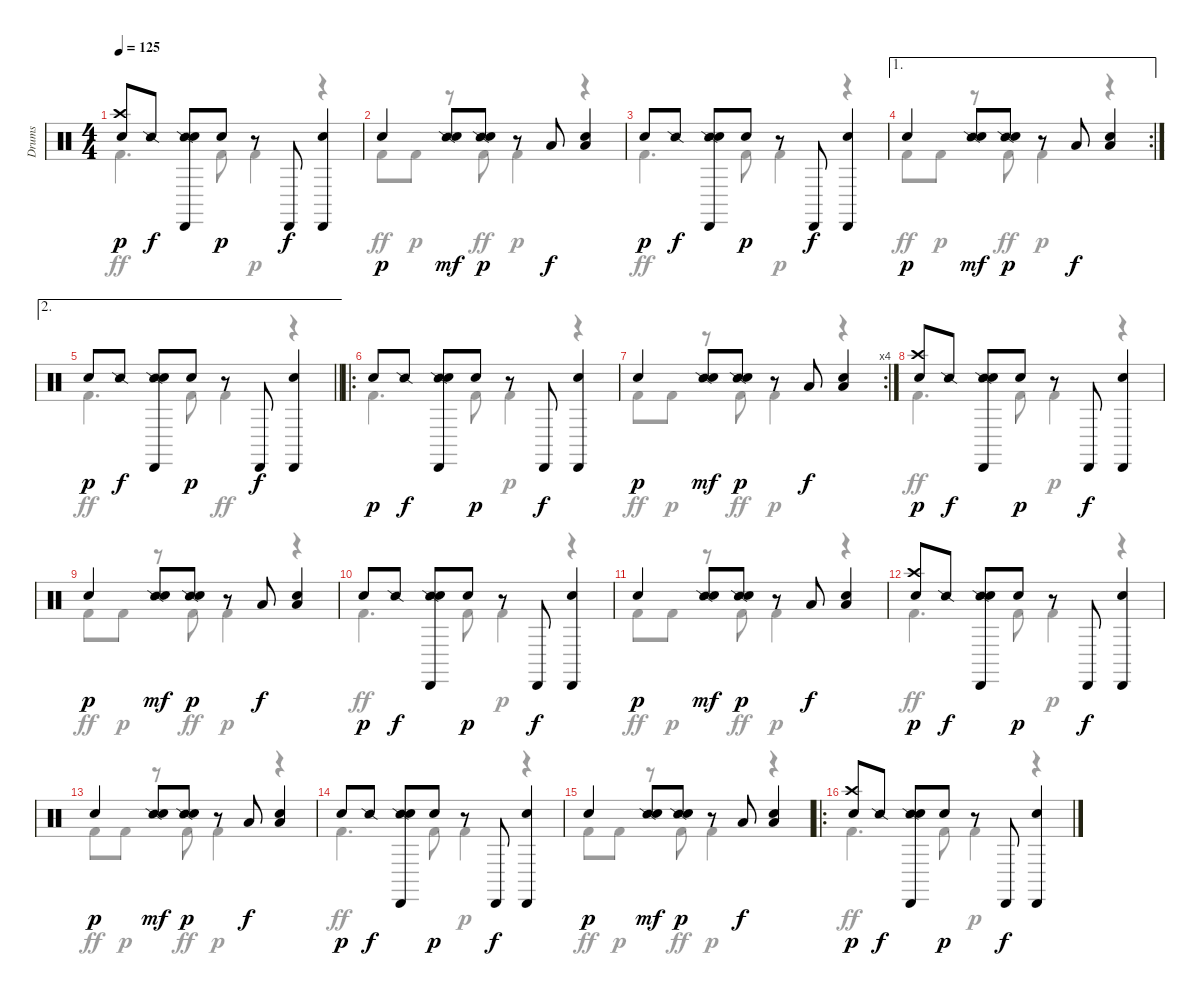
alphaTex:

\track ("Drums" "Drums") {instrument percussion}
\staff {score}
\articulation defaults
\voice
\ts (4 4)
\tempo 125
\clef neutral
\ks c
("Crash high (hit)" "Hand Clap (hit)").8{dy p} "Snare (side stick) 2".8{dy f} ("Snare (side stick) 2" "Cabasa (hit)" "Snare (hit) 2").8 "Hand Clap (hit)".8{dy p} r.8 "Cabasa (hit)".8{dy f} ("Cabasa (hit)" "Snare (hit) 2").4 |
"Hand Clap (hit)".4{dy p} ("Snare (side stick) 2" "Snare (hit) 2").8{dy mf} ("Snare (side stick) 2" "Hand Clap (hit)").8{dy p} r.8 "Low Tom (hit)".8{dy f} ("Low Tom (hit)" "Snare (hit) 2").4 |
"Hand Clap (hit)".8{dy p} "Snare (side stick) 2".8{dy f} ("Snare (side stick) 2" "Cabasa (hit)" "Snare (hit) 2").8 "Hand Clap (hit)".8{dy p} r.8 "Cabasa (hit)".8{dy f} ("Cabasa (hit)" "Snare (hit) 2").4 |
\ae 1
\rc 2 "Hand Clap (hit)".4{dy p}
("Snare (side stick) 2" "Snare (hit) 2").8{dy mf} ("Snare (side stick) 2" "Hand Clap (hit)").8{dy p} r.8 "Low Tom (hit)".8{dy f} ("Low Tom (hit)" "Snare (hit) 2").4 |
\ae 2
\barLineRight lightlight "Hand Clap (hit)".8{dy p} "Snare (side stick) 2".8{dy f}
("Snare (side stick) 2" "Cabasa (hit)" "Snare (hit) 2").8 "Hand Clap (hit)".8{dy p} r.8 "Cabasa (hit)".8{dy f} ("Cabasa (hit)" "Snare (hit) 2").4 |
\ro "Hand Clap (hit)".8{dy p} "Snare (side stick) 2".8{dy f}
("Snare (side stick) 2" "Cabasa (hit)" "Snare (hit) 2").8 "Hand Clap (hit)".8{dy p} r.8 "Cabasa (hit)".8{dy f} ("Cabasa (hit)" "Snare (hit) 2").4 |
\rc 4 "Hand Clap (hit)".4{dy p}
("Snare (side stick) 2" "Snare (hit) 2").8{dy mf} ("Snare (side stick) 2" "Hand Clap (hit)").8{dy p} r.8 "Low Tom (hit)".8{dy f} ("Low Tom (hit)" "Snare (hit) 2").4 |
("Crash high (hit)" "Hand Clap (hit)").8{dy p} "Snare (side stick) 2".8{dy f} ("Snare (side stick) 2" "Cabasa (hit)" "Snare (hit) 2").8 "Hand Clap (hit)".8{dy p} r.8 "Cabasa (hit)".8{dy f} ("Cabasa (hit)" "Snare (hit) 2").4 |
"Hand Clap (hit)".4{dy p} ("Snare (side stick) 2" "Snare (hit) 2").8{dy mf} ("Snare (side stick) 2" "Hand Clap (hit)").8{dy p} r.8 "Low Tom (hit)".8{dy f} ("Low Tom (hit)" "Snare (hit) 2").4 |
"Hand Clap (hit)".8{dy p} "Snare (side stick) 2".8{dy f} ("Snare (side stick) 2" "Cabasa (hit)" "Snare (hit) 2").8 "Hand Clap (hit)".8{dy p} r.8 "Cabasa (hit)".8{dy f} ("Cabasa (hit)" "Snare (hit) 2").4 |
"Hand Clap (hit)".4{dy p} ("Snare (side stick) 2" "Snare (hit) 2").8{dy mf} ("Snare (side stick) 2" "Hand Clap (hit)").8{dy p} r.8 "Low Tom (hit)".8{dy f} ("Low Tom (hit)" "Snare (hit) 2").4 |
("Crash high (hit)" "Hand Clap (hit)").8{dy p} "Snare (side stick) 2".8{dy f} ("Snare (side stick) 2" "Cabasa (hit)" "Snare (hit) 2").8 "Hand Clap (hit)".8{dy p} r.8 "Cabasa (hit)".8{dy f} ("Cabasa (hit)" "Snare (hit) 2").4 |
"Hand Clap (hit)".4{dy p} ("Snare (side stick) 2" "Snare (hit) 2").8{dy mf} ("Snare (side stick) 2" "Hand Clap (hit)").8{dy p} r.8 "Low Tom (hit)".8{dy f} ("Low Tom (hit)" "Snare (hit) 2").4 |
"Hand Clap (hit)".8{dy p} "Snare (side stick) 2".8{dy f} ("Snare (side stick) 2" "Cabasa (hit)" "Snare (hit) 2").8 "Hand Clap (hit)".8{dy p} r.8 "Cabasa (hit)".8{dy f} ("Cabasa (hit)" "Snare (hit) 2").4 |
"Hand Clap (hit)".4{dy p} ("Snare (side stick) 2" "Snare (hit) 2").8{dy mf} ("Snare (side stick) 2" "Hand Clap (hit)").8{dy p} r.8 "Low Tom (hit)".8{dy f} ("Low Tom (hit)" "Snare (hit) 2").4 |
\ro
("Crash high (hit)" "Hand Clap (hit)").8{dy p} "Snare (side stick) 2".8{dy f} ("Snare (side stick) 2" "Cabasa (hit)" "Snare (hit) 2").8 "Hand Clap (hit)".8{dy p} r.8 "Cabasa (hit)".8{dy f} ("Cabasa (hit)" "Snare (hit) 2").4
\voice
\clef neutral
\ottava regular
\simile none
\ks c "Kick (hit) 2".4{d dy ff} "Kick (hit) 2".8 "Kick (hit) 2".4{dy p}
r.4 |
"Kick (hit) 2".8{dy ff} "Kick (hit) 2".8{dy p} r.8 "Kick (hit) 2".8{dy ff} "Kick (hit) 2".4{dy p} r.4 |
"Kick (hit) 2".4{d dy ff} "Kick (hit) 2".8 "Kick (hit) 2".4{dy p} r.4 |
"Kick (hit) 2".8{dy ff} "Kick (hit) 2".8{dy p} r.8 "Kick (hit) 2".8{dy ff} "Kick (hit) 2".4{dy p} r.4 |
\barLineRight lightlight "Kick (hit) 2".4{d dy ff} "Kick (hit) 2".8{dy p} "Kick (hit) 2".4{dy ff}
r.4 |
"Kick (hit) 2".4{d} "Kick (hit) 2".8 "Kick (hit) 2".4{dy p} r.4 |
"Kick (hit) 2".8{dy ff} "Kick (hit) 2".8{dy p} r.8 "Kick (hit) 2".8{dy ff} "Kick (hit) 2".4{dy p} r.4 |
"Kick (hit) 2".4{d dy ff} "Kick (hit) 2".8 "Kick (hit) 2".4{dy p} r.4 |
"Kick (hit) 2".8{dy ff} "Kick (hit) 2".8{dy p} r.8 "Kick (hit) 2".8{dy ff} "Kick (hit) 2".4{dy p} r.4 |
"Kick (hit) 2".4{d dy ff} "Kick (hit) 2".8 "Kick (hit) 2".4{dy p} r.4 |
"Kick (hit) 2".8{dy ff} "Kick (hit) 2".8{dy p} r.8 "Kick (hit) 2".8{dy ff} "Kick (hit) 2".4{dy p} r.4 |
"Kick (hit) 2".4{d dy ff} "Kick (hit) 2".8 "Kick (hit) 2".4{dy p} r.4 |
"Kick (hit) 2".8{dy ff} "Kick (hit) 2".8{dy p} r.8 "Kick (hit) 2".8{dy ff} "Kick (hit) 2".4{dy p} r.4 |
"Kick (hit) 2".4{d dy ff} "Kick (hit) 2".8 "Kick (hit) 2".4{dy p} r.4 |
"Kick (hit) 2".8{dy ff} "Kick (hit) 2".8{dy p} r.8 "Kick (hit) 2".8{dy ff} "Kick (hit) 2".4{dy p} r.4 |
"Kick (hit) 2".4{d dy ff} "Kick (hit) 2".8 "Kick (hit) 2".4{dy p} r.4
